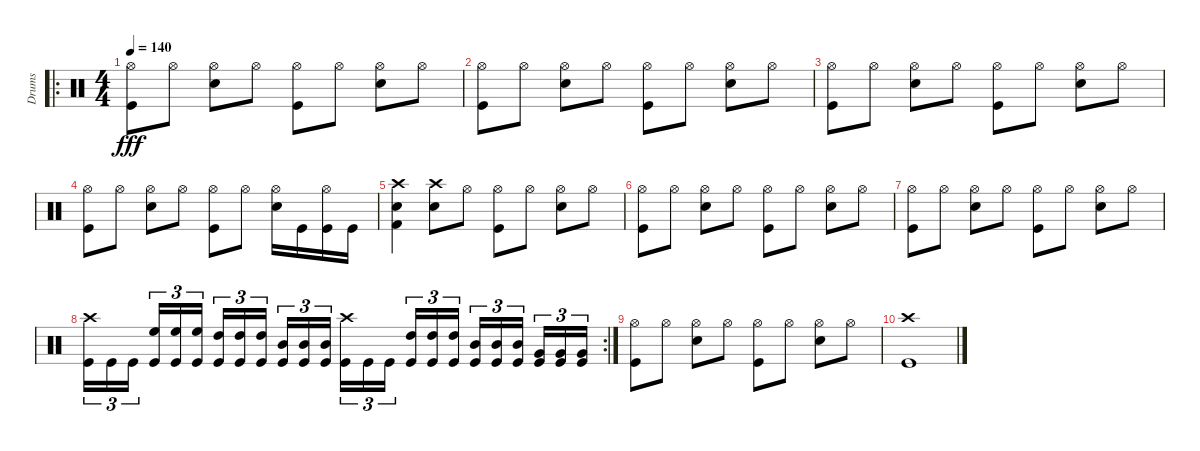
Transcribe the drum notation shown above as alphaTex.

\track ("Drums" "Drums") {instrument percussion}
\staff {score}
\articulation defaults
\ro
\ts (4 4)
\tempo 140
\clef neutral
\ks c
("Hi-Hat (open)" "Kick (hit)").8{dy fff} "Hi-Hat (open)".8 ("Hi-Hat (open)" "Snare (hit) 2").8 "Hi-Hat (open)".8 ("Hi-Hat (open)" "Kick (hit)").8 "Hi-Hat (open)".8 ("Hi-Hat (open)" "Snare (hit) 2").8 "Hi-Hat (open)".8 |
("Hi-Hat (open)" "Kick (hit)").8 "Hi-Hat (open)".8 ("Hi-Hat (open)" "Snare (hit) 2").8 "Hi-Hat (open)".8 ("Hi-Hat (open)" "Kick (hit)").8 "Hi-Hat (open)".8 ("Hi-Hat (open)" "Snare (hit) 2").8 "Hi-Hat (open)".8 |
("Hi-Hat (open)" "Kick (hit)").8 "Hi-Hat (open)".8 ("Hi-Hat (open)" "Snare (hit) 2").8 "Hi-Hat (open)".8 ("Hi-Hat (open)" "Kick (hit)").8 "Hi-Hat (open)".8 ("Hi-Hat (open)" "Snare (hit) 2").8 "Hi-Hat (open)".8 |
("Hi-Hat (open)" "Kick (hit)").8 "Hi-Hat (open)".8 ("Hi-Hat (open)" "Snare (hit) 2").8 "Hi-Hat (open)".8 ("Hi-Hat (open)" "Kick (hit)").8 "Hi-Hat (open)".8 ("Hi-Hat (open)" "Snare (hit) 2").16 "Kick (hit)".16 ("Kick (hit)" "Hi-Hat (open)").16 "Kick (hit)".16 |
("Kick (hit) 2" "Snare (hit) 2" "Crash high (hit)").4 ("Crash high (hit)" "Snare (hit) 2").8 "Hi-Hat (open)".8 ("Hi-Hat (open)" "Kick (hit)").8 "Hi-Hat (open)".8 ("Hi-Hat (open)" "Snare (hit) 2").8 "Hi-Hat (open)".8 |
("Hi-Hat (open)" "Kick (hit)").8 "Hi-Hat (open)".8 ("Hi-Hat (open)" "Snare (hit) 2").8 "Hi-Hat (open)".8 ("Hi-Hat (open)" "Kick (hit)").8 "Hi-Hat (open)".8 ("Hi-Hat (open)" "Snare (hit) 2").8 "Hi-Hat (open)".8 |
("Hi-Hat (open)" "Kick (hit)").8 "Hi-Hat (open)".8 ("Hi-Hat (open)" "Snare (hit) 2").8 "Hi-Hat (open)".8 ("Hi-Hat (open)" "Kick (hit)").8 "Hi-Hat (open)".8 ("Hi-Hat (open)" "Snare (hit) 2").8 "Hi-Hat (open)".8 |
\rc 2
("Kick (hit)" "Crash high (hit)").16{tu (3 2)} "Kick (hit)".16{tu (3 2)} "Kick (hit)".16{tu (3 2)} ("Kick (hit)" "High Floor Tom (hit)").16{tu (3 2)} ("Kick (hit)" "High Floor Tom (hit)").16{tu (3 2)} ("Kick (hit)" "High Floor Tom (hit)").16{tu (3 2)} ("Kick (hit)" "High Tom (hit)").16{tu (3 2)} ("Kick (hit)" "High Tom (hit)").16{tu (3 2)} ("Kick (hit)" "High Tom (hit)").16{tu (3 2)} ("Kick (hit)" "Mid Tom (hit)").16{tu (3 2)} ("Kick (hit)" "Mid Tom (hit)").16{tu (3 2)} ("Kick (hit)" "Mid Tom (hit)").16{tu (3 2)} ("Kick (hit)" "Crash high (hit)").16{tu (3 2)} "Kick (hit)".16{tu (3 2)} "Kick (hit)".16{tu (3 2)} ("Kick (hit)" "High Tom (hit)").16{tu (3 2)} ("Kick (hit)" "High Tom (hit)").16{tu (3 2)} ("Kick (hit)" "High Tom (hit)").16{tu (3 2)} ("Kick (hit)" "Mid Tom (hit)").16{tu (3 2)} ("Kick (hit)" "Mid Tom (hit)").16{tu (3 2)} ("Kick (hit)" "Mid Tom (hit)").16{tu (3 2)} ("Kick (hit)" "Very Low Tom (hit)").16{tu (3 2)} ("Kick (hit)" "Very Low Tom (hit)").16{tu (3 2)} ("Kick (hit)" "Very Low Tom (hit)").16{tu (3 2)} |
("Hi-Hat (open)" "Kick (hit)").8 "Hi-Hat (open)".8 ("Hi-Hat (open)" "Snare (hit) 2").8 "Hi-Hat (open)".8 ("Hi-Hat (open)" "Kick (hit)").8 "Hi-Hat (open)".8 ("Hi-Hat (open)" "Snare (hit) 2").8 "Hi-Hat (open)".8 |
("Crash high (hit)" "Kick (hit)").1
